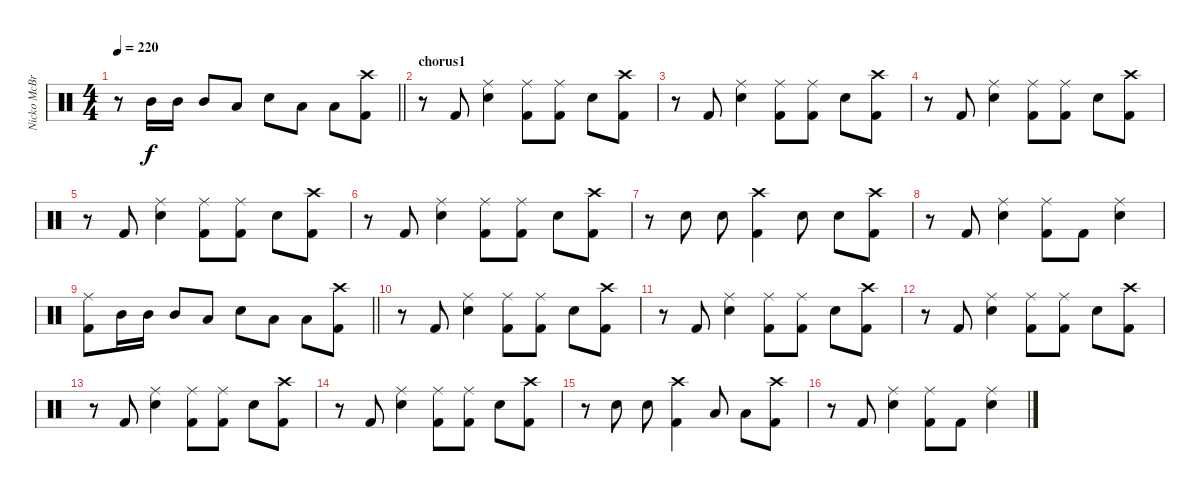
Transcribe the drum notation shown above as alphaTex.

\track ("Nicko McBrain" "Nicko McBr") {instrument percussion}
\staff {score}
\articulation defaults
\ts (4 4)
\tempo 220
\clef neutral
\barLineRight lightlight
\ks c
r.8{dy f} "Mid Tom (hit)".16 "Mid Tom (hit)".16 "Mid Tom (hit)".8 "Low Tom (hit)".8 "Snare (hit) 2".8 "Low Tom (hit)".8 "Low Floor Tom (hit)".8 ("Crash high (hit)" "Kick (hit) 2").8 |
\section ("" "chorus1")
r.8 "Kick (hit) 2".8 ("Ride (middle)" "Snare (hit) 2").4 ("Ride (middle)" "Kick (hit) 2").8 ("Ride (middle)" "Kick (hit) 2").8 "Snare (hit) 2".8 ("Crash high (hit)" "Kick (hit) 2").8 |
r.8 "Kick (hit) 2".8 ("Ride (middle)" "Snare (hit) 2").4 ("Ride (middle)" "Kick (hit) 2").8 ("Ride (middle)" "Kick (hit) 2").8 "Snare (hit) 2".8 ("Crash high (hit)" "Kick (hit) 2").8 |
r.8 "Kick (hit) 2".8 ("Ride (middle)" "Snare (hit) 2").4 ("Ride (middle)" "Kick (hit) 2").8 ("Ride (middle)" "Kick (hit) 2").8 "Snare (hit) 2".8 ("Crash high (hit)" "Kick (hit) 2").8 |
r.8 "Kick (hit) 2".8 ("Ride (middle)" "Snare (hit) 2").4 ("Ride (middle)" "Kick (hit) 2").8 ("Ride (middle)" "Kick (hit) 2").8 "Snare (hit) 2".8 ("Crash high (hit)" "Kick (hit) 2").8 |
r.8 "Kick (hit) 2".8 ("Ride (middle)" "Snare (hit) 2").4 ("Ride (middle)" "Kick (hit) 2").8 ("Ride (middle)" "Kick (hit) 2").8 "Snare (hit) 2".8 ("Crash high (hit)" "Kick (hit) 2").8 |
r.8 "Snare (hit) 2".8 "Snare (hit) 2".8 ("Crash high (hit)" "Kick (hit) 2").4 "Snare (hit) 2".8 "Snare (hit) 2".8 ("Crash high (hit)" "Kick (hit) 2").8 |
r.8 "Kick (hit) 2".8 ("Ride (middle)" "Snare (hit) 2").4 ("Ride (middle)" "Kick (hit) 2").8 "Kick (hit) 2".8 ("Ride (middle)" "Snare (hit) 2").4 |
\barLineRight lightlight
("Ride (middle)" "Kick (hit) 2").8 "Mid Tom (hit)".16 "Mid Tom (hit)".16 "Mid Tom (hit)".8 "Low Tom (hit)".8 "Snare (hit) 2".8 "Low Tom (hit)".8 "Low Floor Tom (hit)".8 ("Crash high (hit)" "Kick (hit) 2").8 |
r.8 "Kick (hit) 2".8 ("Ride (middle)" "Snare (hit) 2").4 ("Ride (middle)" "Kick (hit) 2").8 ("Ride (middle)" "Kick (hit) 2").8 "Snare (hit) 2".8 ("Crash high (hit)" "Kick (hit) 2").8 |
r.8 "Kick (hit) 2".8 ("Ride (middle)" "Snare (hit) 2").4 ("Ride (middle)" "Kick (hit) 2").8 ("Ride (middle)" "Kick (hit) 2").8 "Snare (hit) 2".8 ("Crash high (hit)" "Kick (hit) 2").8 |
r.8 "Kick (hit) 2".8 ("Ride (middle)" "Snare (hit) 2").4 ("Ride (middle)" "Kick (hit) 2").8 ("Ride (middle)" "Kick (hit) 2").8 "Snare (hit) 2".8 ("Crash high (hit)" "Kick (hit) 2").8 |
r.8 "Kick (hit) 2".8 ("Ride (middle)" "Snare (hit) 2").4 ("Ride (middle)" "Kick (hit) 2").8 ("Ride (middle)" "Kick (hit) 2").8 "Snare (hit) 2".8 ("Crash high (hit)" "Kick (hit) 2").8 |
r.8 "Kick (hit) 2".8 ("Ride (middle)" "Snare (hit) 2").4 ("Ride (middle)" "Kick (hit) 2").8 ("Ride (middle)" "Kick (hit) 2").8 "Snare (hit) 2".8 ("Crash high (hit)" "Kick (hit) 2").8 |
r.8 "Snare (hit) 2".8 "Snare (hit) 2".8 ("Crash high (hit)" "Kick (hit) 2").4 "Low Tom (hit)".8 "Low Tom (hit)".8 ("Crash high (hit)" "Kick (hit) 2").8 |
r.8 "Kick (hit) 2".8 ("Ride (middle)" "Snare (hit) 2").4 ("Ride (middle)" "Kick (hit) 2").8 "Kick (hit) 2".8 ("Ride (middle)" "Snare (hit) 2").4
